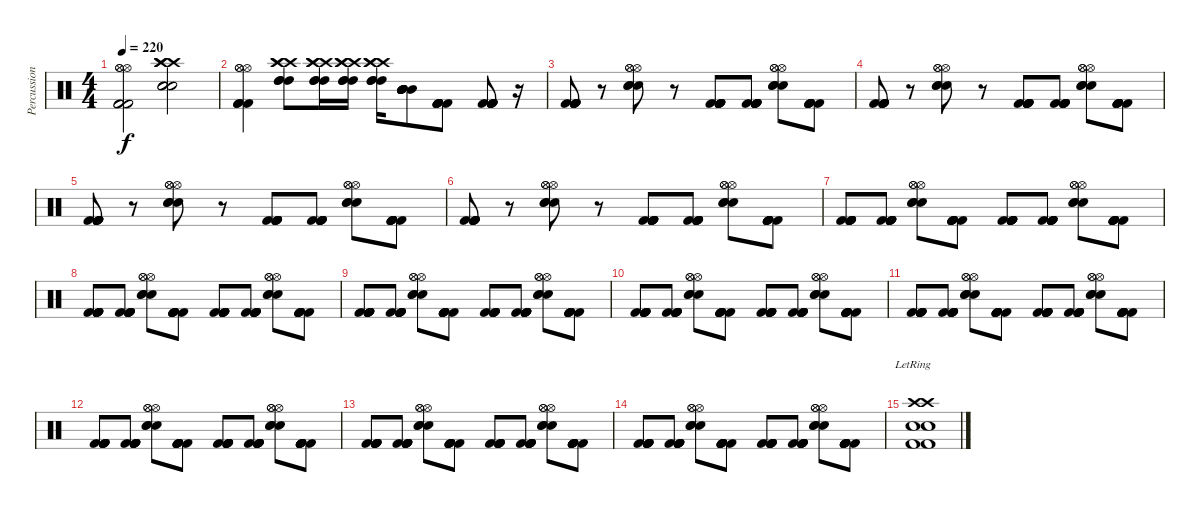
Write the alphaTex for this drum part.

\track ("Percussion" "Percussion") {instrument percussion}
\staff {score}
\articulation defaults
\ts (4 4)
\tempo 220
\clef neutral
\ks c
("Hi-Hat (open)" "Hi-Hat (open)" "Hi-Hat (open)" "Kick (hit) 2" "Kick (hit) 2" "Kick (hit) 2").2{dy f} ("Crash high (hit)" "Crash high (hit)" "Crash high (hit)" "Snare (hit) 2" "Snare (hit) 2" "Snare (hit) 2").2 |
("Hi-Hat (open)" "Hi-Hat (open)" "Hi-Hat (open)" "Kick (hit) 2" "Kick (hit) 2" "Kick (hit) 2").4 ("Crash high (hit)" "Crash high (hit)" "Crash high (hit)" "High Tom (hit)" "High Tom (hit)" "High Tom (hit)").8 ("Crash high (hit)" "Crash high (hit)" "Crash high (hit)" "High Tom (hit)" "High Tom (hit)" "High Tom (hit)").16 ("Crash high (hit)" "Crash high (hit)" "Crash high (hit)" "High Tom (hit)" "High Tom (hit)" "High Tom (hit)").16 ("Crash high (hit)" "Crash high (hit)" "Crash high (hit)" "High Tom (hit)" "High Tom (hit)" "High Tom (hit)").16 ("Mid Tom (hit)" "Mid Tom (hit)" "Mid Tom (hit)" "Mid Tom (hit)" "Mid Tom (hit)" "Mid Tom (hit)").8 ("Kick (hit) 2" "Kick (hit) 2" "Kick (hit) 2" "Kick (hit) 2" "Kick (hit) 2" "Kick (hit) 2").8 ("Kick (hit) 2" "Kick (hit) 2" "Kick (hit) 2" "Kick (hit) 2" "Kick (hit) 2" "Kick (hit) 2").8 r.16 |
("Kick (hit) 2" "Kick (hit) 2" "Kick (hit) 2" "Kick (hit) 2" "Kick (hit) 2" "Kick (hit) 2").8 r.8 ("Hi-Hat (open)" "Hi-Hat (open)" "Hi-Hat (open)" "Snare (hit) 2" "Snare (hit) 2" "Snare (hit) 2").8 r.8 ("Kick (hit) 2" "Kick (hit) 2" "Kick (hit) 2" "Kick (hit) 2" "Kick (hit) 2" "Kick (hit) 2").8 ("Kick (hit) 2" "Kick (hit) 2" "Kick (hit) 2" "Kick (hit) 2" "Kick (hit) 2" "Kick (hit) 2").8 ("Hi-Hat (open)" "Hi-Hat (open)" "Hi-Hat (open)" "Snare (hit) 2" "Snare (hit) 2" "Snare (hit) 2").8 ("Kick (hit) 2" "Kick (hit) 2" "Kick (hit) 2" "Kick (hit) 2" "Kick (hit) 2" "Kick (hit) 2").8 |
("Kick (hit) 2" "Kick (hit) 2" "Kick (hit) 2" "Kick (hit) 2" "Kick (hit) 2" "Kick (hit) 2").8 r.8 ("Hi-Hat (open)" "Hi-Hat (open)" "Hi-Hat (open)" "Snare (hit) 2" "Snare (hit) 2" "Snare (hit) 2").8 r.8 ("Kick (hit) 2" "Kick (hit) 2" "Kick (hit) 2" "Kick (hit) 2" "Kick (hit) 2" "Kick (hit) 2").8 ("Kick (hit) 2" "Kick (hit) 2" "Kick (hit) 2" "Kick (hit) 2" "Kick (hit) 2" "Kick (hit) 2").8 ("Hi-Hat (open)" "Hi-Hat (open)" "Hi-Hat (open)" "Snare (hit) 2" "Snare (hit) 2" "Snare (hit) 2").8 ("Kick (hit) 2" "Kick (hit) 2" "Kick (hit) 2" "Kick (hit) 2" "Kick (hit) 2" "Kick (hit) 2").8 |
("Kick (hit) 2" "Kick (hit) 2" "Kick (hit) 2" "Kick (hit) 2" "Kick (hit) 2" "Kick (hit) 2").8 r.8 ("Hi-Hat (open)" "Hi-Hat (open)" "Hi-Hat (open)" "Snare (hit) 2" "Snare (hit) 2" "Snare (hit) 2").8 r.8 ("Kick (hit) 2" "Kick (hit) 2" "Kick (hit) 2" "Kick (hit) 2" "Kick (hit) 2" "Kick (hit) 2").8 ("Kick (hit) 2" "Kick (hit) 2" "Kick (hit) 2" "Kick (hit) 2" "Kick (hit) 2" "Kick (hit) 2").8 ("Hi-Hat (open)" "Hi-Hat (open)" "Hi-Hat (open)" "Snare (hit) 2" "Snare (hit) 2" "Snare (hit) 2").8 ("Kick (hit) 2" "Kick (hit) 2" "Kick (hit) 2" "Kick (hit) 2" "Kick (hit) 2" "Kick (hit) 2").8 |
("Kick (hit) 2" "Kick (hit) 2" "Kick (hit) 2" "Kick (hit) 2" "Kick (hit) 2" "Kick (hit) 2").8 r.8 ("Hi-Hat (open)" "Hi-Hat (open)" "Hi-Hat (open)" "Snare (hit) 2" "Snare (hit) 2" "Snare (hit) 2").8 r.8 ("Kick (hit) 2" "Kick (hit) 2" "Kick (hit) 2" "Kick (hit) 2" "Kick (hit) 2" "Kick (hit) 2").8 ("Kick (hit) 2" "Kick (hit) 2" "Kick (hit) 2" "Kick (hit) 2" "Kick (hit) 2" "Kick (hit) 2").8 ("Hi-Hat (open)" "Hi-Hat (open)" "Hi-Hat (open)" "Snare (hit) 2" "Snare (hit) 2" "Snare (hit) 2").8 ("Kick (hit) 2" "Kick (hit) 2" "Kick (hit) 2" "Kick (hit) 2" "Kick (hit) 2" "Kick (hit) 2").8 |
("Kick (hit) 2" "Kick (hit) 2" "Kick (hit) 2" "Kick (hit) 2" "Kick (hit) 2" "Kick (hit) 2").8 ("Kick (hit) 2" "Kick (hit) 2" "Kick (hit) 2" "Kick (hit) 2" "Kick (hit) 2" "Kick (hit) 2").8 ("Hi-Hat (open)" "Hi-Hat (open)" "Hi-Hat (open)" "Snare (hit) 2" "Snare (hit) 2" "Snare (hit) 2").8 ("Kick (hit) 2" "Kick (hit) 2" "Kick (hit) 2" "Kick (hit) 2" "Kick (hit) 2" "Kick (hit) 2").8 ("Kick (hit) 2" "Kick (hit) 2" "Kick (hit) 2" "Kick (hit) 2" "Kick (hit) 2" "Kick (hit) 2").8 ("Kick (hit) 2" "Kick (hit) 2" "Kick (hit) 2" "Kick (hit) 2" "Kick (hit) 2" "Kick (hit) 2").8 ("Hi-Hat (open)" "Hi-Hat (open)" "Hi-Hat (open)" "Snare (hit) 2" "Snare (hit) 2" "Snare (hit) 2").8 ("Kick (hit) 2" "Kick (hit) 2" "Kick (hit) 2" "Kick (hit) 2" "Kick (hit) 2" "Kick (hit) 2").8 |
("Kick (hit) 2" "Kick (hit) 2" "Kick (hit) 2" "Kick (hit) 2" "Kick (hit) 2" "Kick (hit) 2").8 ("Kick (hit) 2" "Kick (hit) 2" "Kick (hit) 2" "Kick (hit) 2" "Kick (hit) 2" "Kick (hit) 2").8 ("Hi-Hat (open)" "Hi-Hat (open)" "Hi-Hat (open)" "Snare (hit) 2" "Snare (hit) 2" "Snare (hit) 2").8 ("Kick (hit) 2" "Kick (hit) 2" "Kick (hit) 2" "Kick (hit) 2" "Kick (hit) 2" "Kick (hit) 2").8 ("Kick (hit) 2" "Kick (hit) 2" "Kick (hit) 2" "Kick (hit) 2" "Kick (hit) 2" "Kick (hit) 2").8 ("Kick (hit) 2" "Kick (hit) 2" "Kick (hit) 2" "Kick (hit) 2" "Kick (hit) 2" "Kick (hit) 2").8 ("Hi-Hat (open)" "Hi-Hat (open)" "Hi-Hat (open)" "Snare (hit) 2" "Snare (hit) 2" "Snare (hit) 2").8 ("Kick (hit) 2" "Kick (hit) 2" "Kick (hit) 2" "Kick (hit) 2" "Kick (hit) 2" "Kick (hit) 2").8 |
("Kick (hit) 2" "Kick (hit) 2" "Kick (hit) 2" "Kick (hit) 2" "Kick (hit) 2" "Kick (hit) 2").8 ("Kick (hit) 2" "Kick (hit) 2" "Kick (hit) 2" "Kick (hit) 2" "Kick (hit) 2" "Kick (hit) 2").8 ("Hi-Hat (open)" "Hi-Hat (open)" "Hi-Hat (open)" "Snare (hit) 2" "Snare (hit) 2" "Snare (hit) 2").8 ("Kick (hit) 2" "Kick (hit) 2" "Kick (hit) 2" "Kick (hit) 2" "Kick (hit) 2" "Kick (hit) 2").8 ("Kick (hit) 2" "Kick (hit) 2" "Kick (hit) 2" "Kick (hit) 2" "Kick (hit) 2" "Kick (hit) 2").8 ("Kick (hit) 2" "Kick (hit) 2" "Kick (hit) 2" "Kick (hit) 2" "Kick (hit) 2" "Kick (hit) 2").8 ("Hi-Hat (open)" "Hi-Hat (open)" "Hi-Hat (open)" "Snare (hit) 2" "Snare (hit) 2" "Snare (hit) 2").8 ("Kick (hit) 2" "Kick (hit) 2" "Kick (hit) 2" "Kick (hit) 2" "Kick (hit) 2" "Kick (hit) 2").8 |
("Kick (hit) 2" "Kick (hit) 2" "Kick (hit) 2" "Kick (hit) 2" "Kick (hit) 2" "Kick (hit) 2").8 ("Kick (hit) 2" "Kick (hit) 2" "Kick (hit) 2" "Kick (hit) 2" "Kick (hit) 2" "Kick (hit) 2").8 ("Hi-Hat (open)" "Hi-Hat (open)" "Hi-Hat (open)" "Snare (hit) 2" "Snare (hit) 2" "Snare (hit) 2").8 ("Kick (hit) 2" "Kick (hit) 2" "Kick (hit) 2" "Kick (hit) 2" "Kick (hit) 2" "Kick (hit) 2").8 ("Kick (hit) 2" "Kick (hit) 2" "Kick (hit) 2" "Kick (hit) 2" "Kick (hit) 2" "Kick (hit) 2").8 ("Kick (hit) 2" "Kick (hit) 2" "Kick (hit) 2" "Kick (hit) 2" "Kick (hit) 2" "Kick (hit) 2").8 ("Hi-Hat (open)" "Hi-Hat (open)" "Hi-Hat (open)" "Snare (hit) 2" "Snare (hit) 2" "Snare (hit) 2").8 ("Kick (hit) 2" "Kick (hit) 2" "Kick (hit) 2" "Kick (hit) 2" "Kick (hit) 2" "Kick (hit) 2").8 |
("Kick (hit) 2" "Kick (hit) 2" "Kick (hit) 2" "Kick (hit) 2" "Kick (hit) 2" "Kick (hit) 2").8 ("Kick (hit) 2" "Kick (hit) 2" "Kick (hit) 2" "Kick (hit) 2" "Kick (hit) 2" "Kick (hit) 2").8 ("Hi-Hat (open)" "Hi-Hat (open)" "Hi-Hat (open)" "Snare (hit) 2" "Snare (hit) 2" "Snare (hit) 2").8 ("Kick (hit) 2" "Kick (hit) 2" "Kick (hit) 2" "Kick (hit) 2" "Kick (hit) 2" "Kick (hit) 2").8 ("Kick (hit) 2" "Kick (hit) 2" "Kick (hit) 2" "Kick (hit) 2" "Kick (hit) 2" "Kick (hit) 2").8 ("Kick (hit) 2" "Kick (hit) 2" "Kick (hit) 2" "Kick (hit) 2" "Kick (hit) 2" "Kick (hit) 2").8 ("Hi-Hat (open)" "Hi-Hat (open)" "Hi-Hat (open)" "Snare (hit) 2" "Snare (hit) 2" "Snare (hit) 2").8 ("Kick (hit) 2" "Kick (hit) 2" "Kick (hit) 2" "Kick (hit) 2" "Kick (hit) 2" "Kick (hit) 2").8 |
("Kick (hit) 2" "Kick (hit) 2" "Kick (hit) 2" "Kick (hit) 2" "Kick (hit) 2" "Kick (hit) 2").8 ("Kick (hit) 2" "Kick (hit) 2" "Kick (hit) 2" "Kick (hit) 2" "Kick (hit) 2" "Kick (hit) 2").8 ("Hi-Hat (open)" "Hi-Hat (open)" "Hi-Hat (open)" "Snare (hit) 2" "Snare (hit) 2" "Snare (hit) 2").8 ("Kick (hit) 2" "Kick (hit) 2" "Kick (hit) 2" "Kick (hit) 2" "Kick (hit) 2" "Kick (hit) 2").8 ("Kick (hit) 2" "Kick (hit) 2" "Kick (hit) 2" "Kick (hit) 2" "Kick (hit) 2" "Kick (hit) 2").8 ("Kick (hit) 2" "Kick (hit) 2" "Kick (hit) 2" "Kick (hit) 2" "Kick (hit) 2" "Kick (hit) 2").8 ("Hi-Hat (open)" "Hi-Hat (open)" "Hi-Hat (open)" "Snare (hit) 2" "Snare (hit) 2" "Snare (hit) 2").8 ("Kick (hit) 2" "Kick (hit) 2" "Kick (hit) 2" "Kick (hit) 2" "Kick (hit) 2" "Kick (hit) 2").8 |
("Kick (hit) 2" "Kick (hit) 2" "Kick (hit) 2" "Kick (hit) 2" "Kick (hit) 2" "Kick (hit) 2").8 ("Kick (hit) 2" "Kick (hit) 2" "Kick (hit) 2" "Kick (hit) 2" "Kick (hit) 2" "Kick (hit) 2").8 ("Hi-Hat (open)" "Hi-Hat (open)" "Hi-Hat (open)" "Snare (hit) 2" "Snare (hit) 2" "Snare (hit) 2").8 ("Kick (hit) 2" "Kick (hit) 2" "Kick (hit) 2" "Kick (hit) 2" "Kick (hit) 2" "Kick (hit) 2").8 ("Kick (hit) 2" "Kick (hit) 2" "Kick (hit) 2" "Kick (hit) 2" "Kick (hit) 2" "Kick (hit) 2").8 ("Kick (hit) 2" "Kick (hit) 2" "Kick (hit) 2" "Kick (hit) 2" "Kick (hit) 2" "Kick (hit) 2").8 ("Hi-Hat (open)" "Hi-Hat (open)" "Hi-Hat (open)" "Snare (hit) 2" "Snare (hit) 2" "Snare (hit) 2").8 ("Kick (hit) 2" "Kick (hit) 2" "Kick (hit) 2" "Kick (hit) 2" "Kick (hit) 2" "Kick (hit) 2").8 |
("Kick (hit) 2" "Kick (hit) 2" "Kick (hit) 2" "Kick (hit) 2" "Kick (hit) 2" "Kick (hit) 2").8 ("Kick (hit) 2" "Kick (hit) 2" "Kick (hit) 2" "Kick (hit) 2" "Kick (hit) 2" "Kick (hit) 2").8 ("Hi-Hat (open)" "Hi-Hat (open)" "Hi-Hat (open)" "Snare (hit) 2" "Snare (hit) 2" "Snare (hit) 2").8 ("Kick (hit) 2" "Kick (hit) 2" "Kick (hit) 2" "Kick (hit) 2" "Kick (hit) 2" "Kick (hit) 2").8 ("Kick (hit) 2" "Kick (hit) 2" "Kick (hit) 2" "Kick (hit) 2" "Kick (hit) 2" "Kick (hit) 2").8 ("Kick (hit) 2" "Kick (hit) 2" "Kick (hit) 2" "Kick (hit) 2" "Kick (hit) 2" "Kick (hit) 2").8 ("Hi-Hat (open)" "Hi-Hat (open)" "Hi-Hat (open)" "Snare (hit) 2" "Snare (hit) 2" "Snare (hit) 2").8 ("Kick (hit) 2" "Kick (hit) 2" "Kick (hit) 2" "Kick (hit) 2" "Kick (hit) 2" "Kick (hit) 2").8 |
("Snare (hit) 2" "Snare (hit) 2" "Crash high (hit)" "Crash high (hit)"{lr} "Kick (hit) 2" "Kick (hit) 2").1
